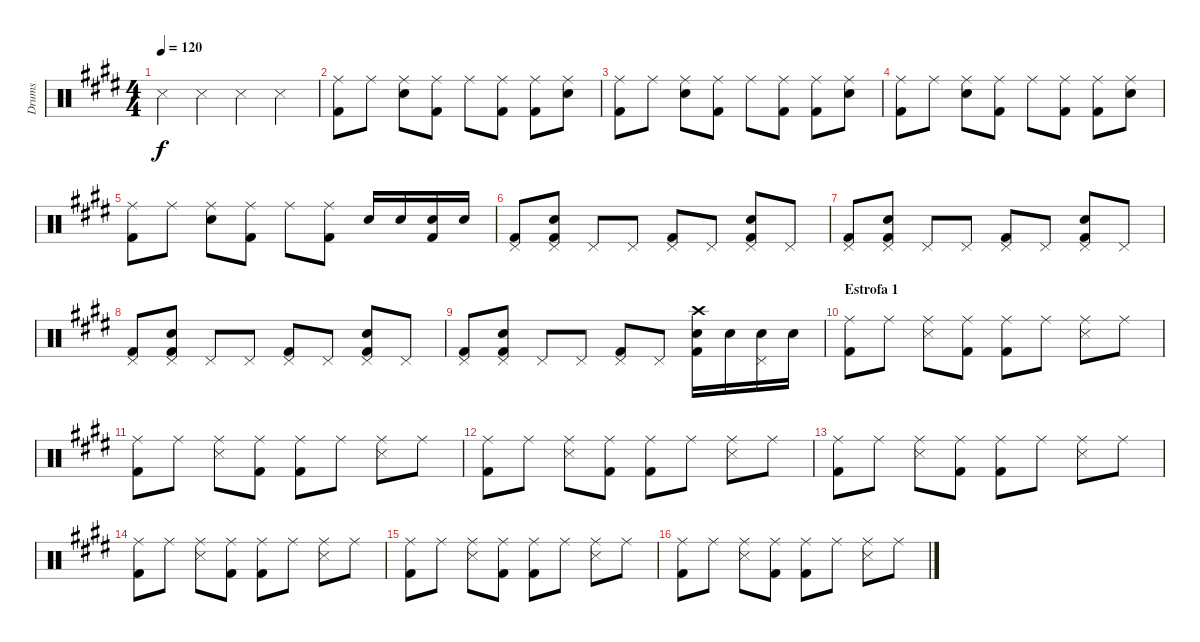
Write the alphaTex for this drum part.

\track ("Drums" "Drums") {instrument percussion}
\staff {score}
\articulation defaults
\ts (4 4)
\tempo 120
\clef neutral
\ks e "Snare (side stick) 3".4{dy f} "Snare (side stick) 3".4 "Snare (side stick) 3".4 "Snare (side stick) 3".4
|
("Ride (middle)" "Kick (hit) 2").8 "Ride (middle)".8 ("Ride (middle)" "Snare (hit) 2").8 ("Ride (middle)" "Kick (hit) 2").8 "Ride (middle)".8 ("Ride (middle)" "Kick (hit) 2").8 ("Ride (middle)" "Kick (hit) 2").8 ("Ride (middle)" "Snare (hit) 2").8 |
("Ride (middle)" "Kick (hit) 2").8 "Ride (middle)".8 ("Ride (middle)" "Snare (hit) 2").8 ("Ride (middle)" "Kick (hit) 2").8 "Ride (middle)".8 ("Ride (middle)" "Kick (hit) 2").8 ("Ride (middle)" "Kick (hit) 2").8 ("Ride (middle)" "Snare (hit) 2").8 |
("Ride (middle)" "Kick (hit) 2").8 "Ride (middle)".8 ("Ride (middle)" "Snare (hit) 2").8 ("Ride (middle)" "Kick (hit) 2").8 "Ride (middle)".8 ("Ride (middle)" "Kick (hit) 2").8 ("Ride (middle)" "Kick (hit) 2").8 ("Ride (middle)" "Snare (hit) 2").8 |
("Ride (middle)" "Kick (hit) 2").8 "Ride (middle)".8 ("Ride (middle)" "Snare (hit) 2").8 ("Ride (middle)" "Kick (hit) 2").8 "Ride (middle)".8 ("Ride (middle)" "Kick (hit) 2").8 "Snare (hit) 2".16 "Snare (hit) 2".16 ("Snare (hit) 2" "Kick (hit) 2").16 "Snare (hit) 2".16 |
("Pedal Hi-Hat (hit)" "Kick (hit) 2").8 ("Pedal Hi-Hat (hit)" "Snare (hit) 2" "Kick (hit) 2").8 "Pedal Hi-Hat (hit)".8 "Pedal Hi-Hat (hit)".8 ("Pedal Hi-Hat (hit)" "Kick (hit) 2").8 "Pedal Hi-Hat (hit)".8 ("Pedal Hi-Hat (hit)" "Snare (hit) 2" "Kick (hit) 2").8 "Pedal Hi-Hat (hit)".8 |
("Pedal Hi-Hat (hit)" "Kick (hit) 2").8 ("Pedal Hi-Hat (hit)" "Snare (hit) 2" "Kick (hit) 2").8 "Pedal Hi-Hat (hit)".8 "Pedal Hi-Hat (hit)".8 ("Pedal Hi-Hat (hit)" "Kick (hit) 2").8 "Pedal Hi-Hat (hit)".8 ("Pedal Hi-Hat (hit)" "Snare (hit) 2" "Kick (hit) 2").8 "Pedal Hi-Hat (hit)".8 |
("Pedal Hi-Hat (hit)" "Kick (hit) 2").8 ("Pedal Hi-Hat (hit)" "Snare (hit) 2" "Kick (hit) 2").8 "Pedal Hi-Hat (hit)".8 "Pedal Hi-Hat (hit)".8 ("Pedal Hi-Hat (hit)" "Kick (hit) 2").8 "Pedal Hi-Hat (hit)".8 ("Pedal Hi-Hat (hit)" "Snare (hit) 2" "Kick (hit) 2").8 "Pedal Hi-Hat (hit)".8 |
("Pedal Hi-Hat (hit)" "Kick (hit) 2").8 ("Pedal Hi-Hat (hit)" "Snare (hit) 2" "Kick (hit) 2").8 "Pedal Hi-Hat (hit)".8 "Pedal Hi-Hat (hit)".8 ("Pedal Hi-Hat (hit)" "Kick (hit) 2").8 "Pedal Hi-Hat (hit)".8 ("Crash high (hit)" "Snare (hit) 2" "Kick (hit) 2").16 "Snare (hit) 2".16 ("Pedal Hi-Hat (hit)" "Snare (hit) 2").16 "Snare (hit) 2".16 |
\section ("" "Estrofa 1")
("Ride (middle)" "Kick (hit) 2").8 "Ride (middle)".8 ("Ride (middle)" "Snare (side stick) 3").8 ("Ride (middle)" "Kick (hit) 2").8 ("Ride (middle)" "Kick (hit) 2").8 "Ride (middle)".8 ("Ride (middle)" "Snare (side stick) 3").8 "Ride (middle)".8 |
("Ride (middle)" "Kick (hit) 2").8 "Ride (middle)".8 ("Ride (middle)" "Snare (side stick) 3").8 ("Ride (middle)" "Kick (hit) 2").8 ("Ride (middle)" "Kick (hit) 2").8 "Ride (middle)".8 ("Ride (middle)" "Snare (side stick) 3").8 "Ride (middle)".8 |
("Ride (middle)" "Kick (hit) 2").8 "Ride (middle)".8 ("Ride (middle)" "Snare (side stick) 3").8 ("Ride (middle)" "Kick (hit) 2").8 ("Ride (middle)" "Kick (hit) 2").8 "Ride (middle)".8 ("Ride (middle)" "Snare (side stick) 3").8 "Ride (middle)".8 |
("Ride (middle)" "Kick (hit) 2").8 "Ride (middle)".8 ("Ride (middle)" "Snare (side stick) 3").8 ("Ride (middle)" "Kick (hit) 2").8 ("Ride (middle)" "Kick (hit) 2").8 "Ride (middle)".8 ("Ride (middle)" "Snare (side stick) 3").8 "Ride (middle)".8 |
("Ride (middle)" "Kick (hit) 2").8 "Ride (middle)".8 ("Ride (middle)" "Snare (side stick) 3").8 ("Ride (middle)" "Kick (hit) 2").8 ("Ride (middle)" "Kick (hit) 2").8 "Ride (middle)".8 ("Ride (middle)" "Snare (side stick) 3").8 "Ride (middle)".8 |
("Ride (middle)" "Kick (hit) 2").8 "Ride (middle)".8 ("Ride (middle)" "Snare (side stick) 3").8 ("Ride (middle)" "Kick (hit) 2").8 ("Ride (middle)" "Kick (hit) 2").8 "Ride (middle)".8 ("Ride (middle)" "Snare (side stick) 3").8 "Ride (middle)".8 |
("Ride (middle)" "Kick (hit) 2").8 "Ride (middle)".8 ("Ride (middle)" "Snare (side stick) 3").8 ("Ride (middle)" "Kick (hit) 2").8 ("Ride (middle)" "Kick (hit) 2").8 "Ride (middle)".8 ("Ride (middle)" "Snare (side stick) 3").8 "Ride (middle)".8
